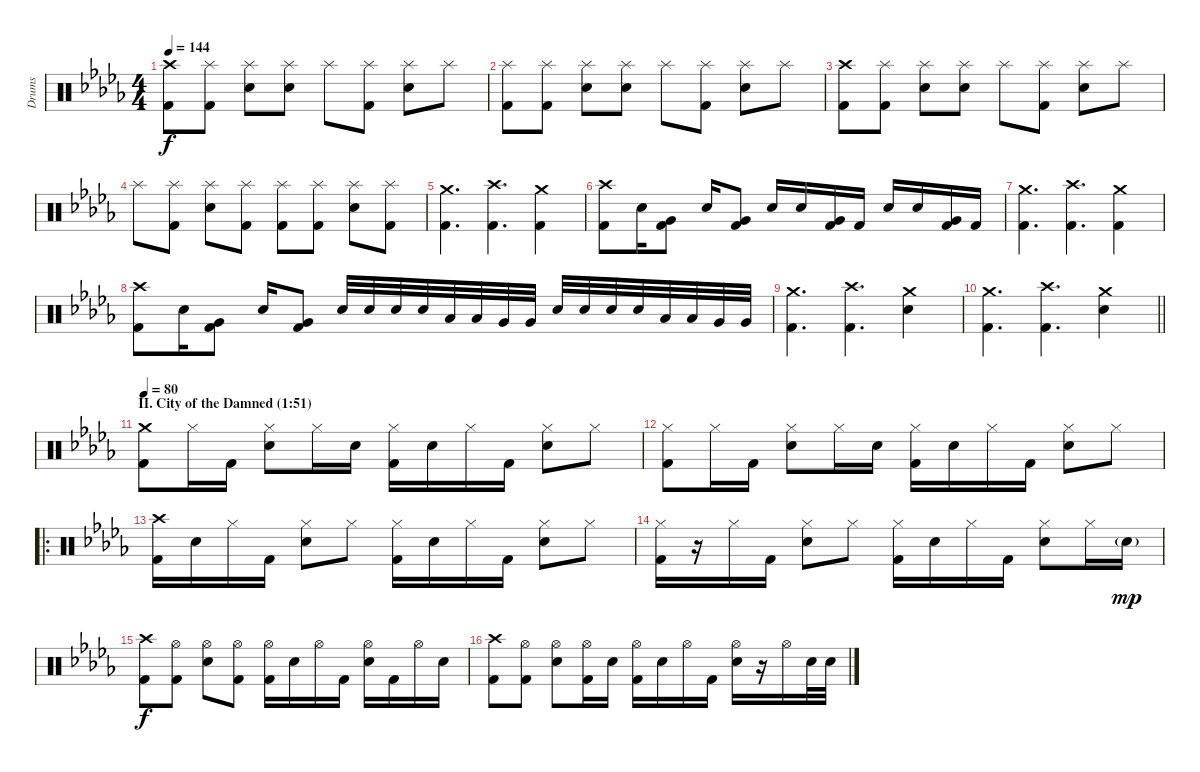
\track ("Drums" "Drums") {instrument percussion}
\staff {score}
\articulation defaults
\ts (4 4)
\tempo 144
\clef neutral
\ks db
("Crash high (hit)" "Kick (hit) 2").8{dy f} ("Splash (hit)" "Kick (hit) 2").8 ("Splash (hit)" "Snare (hit) 2").8 ("Splash (hit)" "Snare (hit) 2").8 "Splash (hit)".8 ("Splash (hit)" "Kick (hit) 2").8 ("Splash (hit)" "Snare (hit) 2").8 "Splash (hit)".8 |
("Splash (hit)" "Kick (hit) 2").8 ("Splash (hit)" "Kick (hit) 2").8 ("Splash (hit)" "Snare (hit) 2").8 ("Splash (hit)" "Snare (hit) 2").8 "Splash (hit)".8 ("Splash (hit)" "Kick (hit) 2").8 ("Splash (hit)" "Snare (hit) 2").8 "Splash (hit)".8 |
("Crash high (hit)" "Kick (hit) 2").8 ("Splash (hit)" "Kick (hit) 2").8 ("Splash (hit)" "Snare (hit) 2").8 ("Splash (hit)" "Snare (hit) 2").8 "Splash (hit)".8 ("Splash (hit)" "Kick (hit) 2").8 ("Splash (hit)" "Snare (hit) 2").8 "Splash (hit)".8 |
"Splash (hit)".8 ("Splash (hit)" "Kick (hit) 2").8 ("Splash (hit)" "Snare (hit) 2").8 ("Splash (hit)" "Kick (hit) 2").8 ("Splash (hit)" "Kick (hit) 2").8 ("Splash (hit)" "Kick (hit) 2").8 ("Splash (hit)" "Snare (hit) 2").8 ("Splash (hit)" "Kick (hit) 2").8 |
("Crash medium (hit)" "Kick (hit) 2").4{d} ("Crash high (hit)" "Kick (hit) 2").4{d} ("Crash medium (hit)" "Kick (hit) 2").4 |
("Crash high (hit)" "Kick (hit) 2").8 "Snare (hit) 2".16 ("Very Low Tom (hit)" "Kick (hit) 2").8 "Snare (hit) 2".16 ("Very Low Tom (hit)" "Kick (hit) 2").8 "Snare (hit) 2".16 "Snare (hit) 2".16 ("Very Low Tom (hit)" "Kick (hit) 2").16 "Kick (hit) 2".16 "Snare (hit) 2".16 "Snare (hit) 2".16 ("Very Low Tom (hit)" "Kick (hit) 2").16 "Kick (hit) 2".16 |
("Crash medium (hit)" "Kick (hit) 2").4{d} ("Crash high (hit)" "Kick (hit) 2").4{d} ("Crash medium (hit)" "Kick (hit) 2").4 |
("Crash high (hit)" "Kick (hit) 2").8 "Snare (hit) 2".16 ("Very Low Tom (hit)" "Kick (hit) 2").8 "Snare (hit) 2".16 ("Very Low Tom (hit)" "Kick (hit) 2").8 "Snare (hit) 2".32 "Snare (hit) 2".32 "Snare (hit) 2".32 "Snare (hit) 2".32 "Low Tom (hit)".32 "Low Tom (hit)".32 "Very Low Tom (hit)".32 "Very Low Tom (hit)".32 "Snare (hit) 2".32 "Snare (hit) 2".32 "Snare (hit) 2".32 "Snare (hit) 2".32 "Low Tom (hit)".32 "Low Tom (hit)".32 "Very Low Tom (hit)".32 "Very Low Tom (hit)".32 |
("Crash medium (hit)" "Kick (hit) 2").4{d} ("Crash high (hit)" "Kick (hit) 2").4{d} ("Crash medium (hit)" "Snare (hit) 2").4 |
\barLineRight lightlight
("Crash medium (hit)" "Kick (hit) 2").4{d} ("Crash high (hit)" "Kick (hit) 2").4{d} ("Crash medium (hit)" "Snare (hit) 2").4 |
\section ("" "II. City of the Damned (1:51)")
\tempo 80
("Crash medium (hit)" "Kick (hit) 2").8 "Hi-Hat (closed)".16 "Kick (hit) 2".16 ("Hi-Hat (closed)" "Snare (hit) 2").8 "Hi-Hat (closed)".16 "Snare (hit) 2".16 ("Hi-Hat (closed)" "Kick (hit) 2").16 "Snare (hit) 2".16 "Hi-Hat (closed)".16 "Kick (hit) 2".16 ("Hi-Hat (closed)" "Snare (hit) 2").8 "Hi-Hat (closed)".8 |
("Hi-Hat (closed)" "Kick (hit) 2").8 "Hi-Hat (closed)".16 "Kick (hit) 2".16 ("Hi-Hat (closed)" "Snare (hit) 2").8 "Hi-Hat (closed)".16 "Snare (hit) 2".16 ("Hi-Hat (closed)" "Kick (hit) 2").16 "Snare (hit) 2".16 "Hi-Hat (closed)".16 "Kick (hit) 2".16 ("Hi-Hat (closed)" "Snare (hit) 2").8 "Hi-Hat (closed)".8 |
\ro
("Crash high (hit)" "Kick (hit) 2").16 "Snare (hit) 2".16 "Hi-Hat (closed)".16 "Kick (hit) 2".16 ("Hi-Hat (closed)" "Snare (hit) 2").8 "Hi-Hat (closed)".8 ("Hi-Hat (closed)" "Kick (hit) 2").16 "Snare (hit) 2".16 "Hi-Hat (closed)".16 "Kick (hit) 2".16 ("Hi-Hat (closed)" "Snare (hit) 2").8 "Hi-Hat (closed)".8 |
("Hi-Hat (closed)" "Kick (hit) 2").16 r.16 "Hi-Hat (closed)".16 "Kick (hit) 2".16 ("Hi-Hat (closed)" "Snare (hit) 2").8 "Hi-Hat (closed)".8 ("Hi-Hat (closed)" "Kick (hit) 2").16 "Snare (hit) 2".16 "Hi-Hat (closed)".16 "Kick (hit) 2".16 ("Hi-Hat (closed)" "Snare (hit) 2").8 "Hi-Hat (closed)".16 "Snare (hit) 2"{g}.16{dy mp} |
("Crash high (hit)" "Kick (hit) 2").8{dy f} ("Hi-Hat (open)" "Kick (hit) 2").8 ("Hi-Hat (open)" "Snare (hit) 2").8 ("Hi-Hat (open)" "Kick (hit) 2").8 ("Hi-Hat (open)" "Kick (hit) 2").16 "Snare (hit) 2".16 "Hi-Hat (open)".16 "Kick (hit) 2".16 ("Hi-Hat (open)" "Snare (hit) 2").16 "Kick (hit) 2".16 "Hi-Hat (open)".16 "Snare (hit) 2".16 |
("Crash high (hit)" "Kick (hit) 2").8 ("Hi-Hat (open)" "Kick (hit) 2").8 ("Hi-Hat (open)" "Snare (hit) 2").8 ("Hi-Hat (open)" "Kick (hit) 2").16 "Snare (hit) 2".16 ("Hi-Hat (open)" "Kick (hit) 2").16 "Snare (hit) 2".16 "Hi-Hat (open)".16 "Kick (hit) 2".16 ("Hi-Hat (open)" "Snare (hit) 2").16 r.16 "Hi-Hat (open)".16 "Snare (hit) 2".32 "Snare (hit) 2".32
